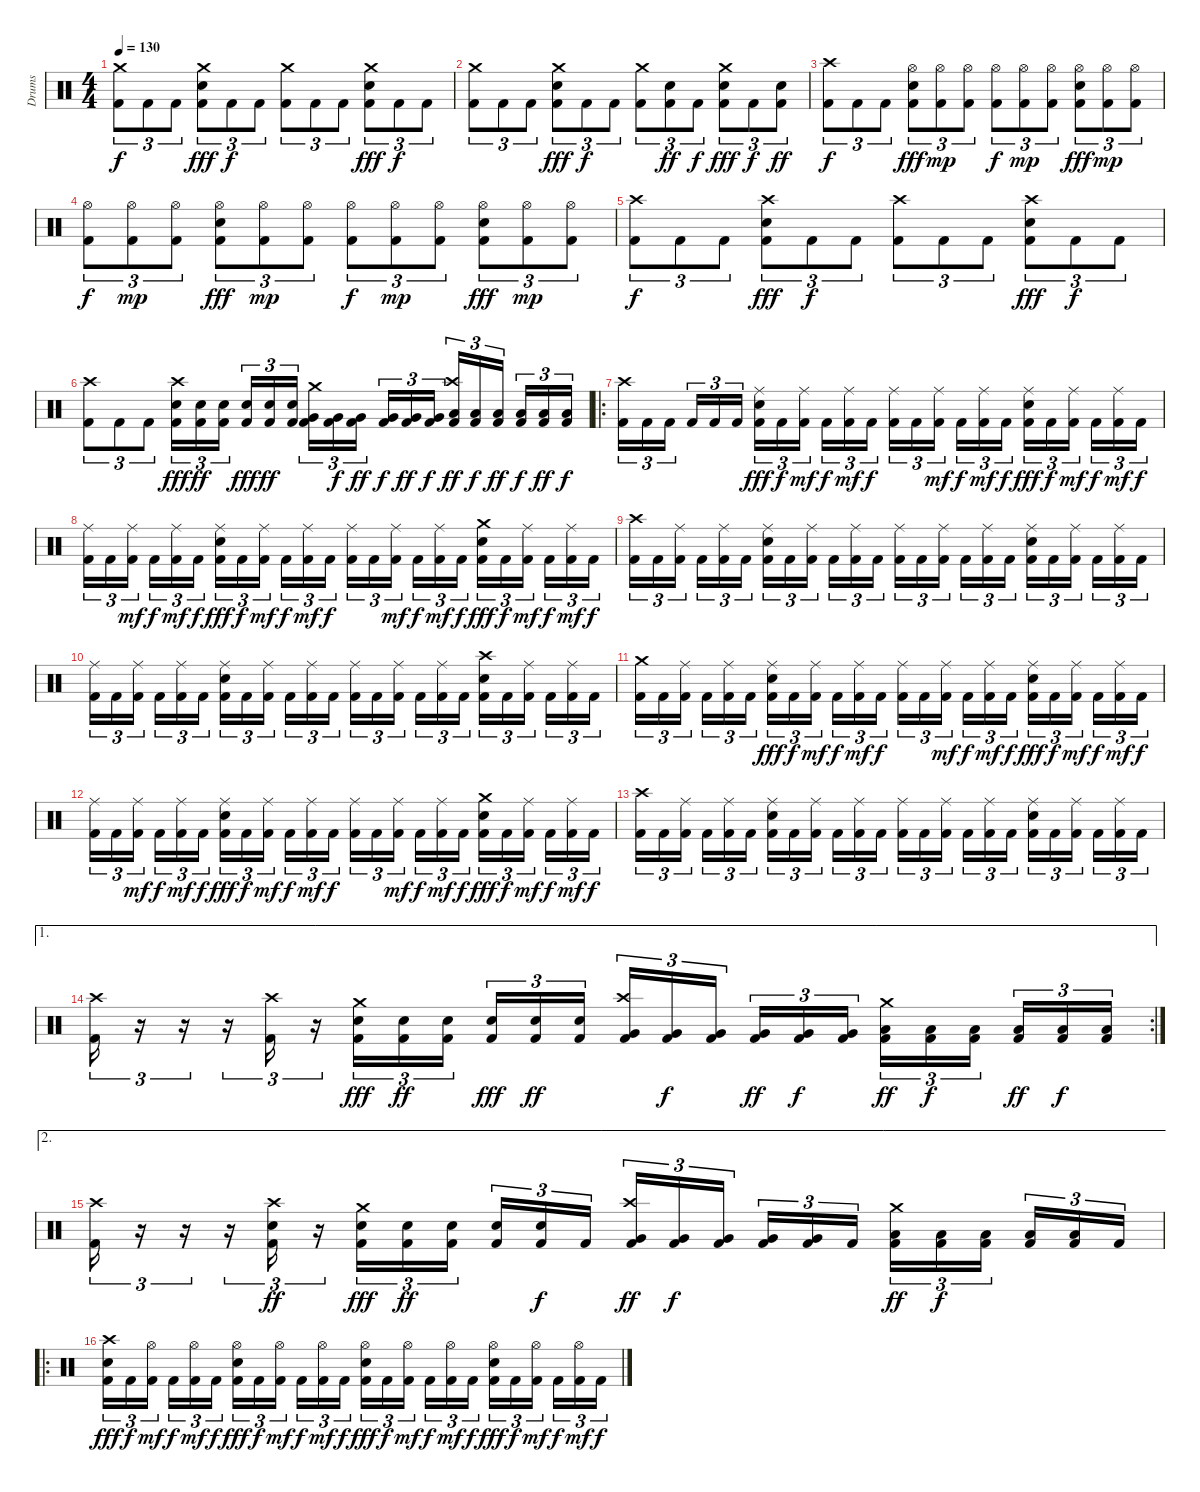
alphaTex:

\track ("Drums" "Drums") {instrument percussion}
\staff {score}
\articulation defaults
\ts (4 4)
\tempo 130
\clef neutral
\ks c
("Crash medium (hit)" "Kick (hit) 2").8{tu (3 2) dy f} "Kick (hit) 2".8{tu (3 2)} "Kick (hit) 2".8{tu (3 2)} ("Crash medium (hit)" "Snare (hit) 2" "Kick (hit) 2").8{tu (3 2) dy fff} "Kick (hit) 2".8{tu (3 2) dy f} "Kick (hit) 2".8{tu (3 2)} ("Crash medium (hit)" "Kick (hit) 2").8{tu (3 2)} "Kick (hit) 2".8{tu (3 2)} "Kick (hit) 2".8{tu (3 2)} ("Crash medium (hit)" "Snare (hit) 2" "Kick (hit) 2").8{tu (3 2) dy fff} "Kick (hit) 2".8{tu (3 2) dy f} "Kick (hit) 2".8{tu (3 2)} |
("Crash medium (hit)" "Kick (hit) 2").8{tu (3 2)} "Kick (hit) 2".8{tu (3 2)} "Kick (hit) 2".8{tu (3 2)} ("Crash medium (hit)" "Snare (hit) 2" "Kick (hit) 2").8{tu (3 2) dy fff} "Kick (hit) 2".8{tu (3 2) dy f} "Kick (hit) 2".8{tu (3 2)} ("Crash medium (hit)" "Kick (hit) 2").8{tu (3 2)} ("Snare (hit) 2" "Kick (hit) 2").8{tu (3 2) dy ff} "Kick (hit) 2".8{tu (3 2) dy f} ("Crash medium (hit)" "Snare (hit) 2" "Kick (hit) 2").8{tu (3 2) dy fff} "Kick (hit) 2".8{tu (3 2) dy f} ("Snare (hit) 2" "Kick (hit) 2").8{tu (3 2) dy ff} |
("Crash high (hit)" "Kick (hit) 2").8{tu (3 2) dy f} "Kick (hit) 2".8{tu (3 2)} "Kick (hit) 2".8{tu (3 2)} ("Hi-Hat (open)" "Snare (hit) 2" "Kick (hit) 2").8{tu (3 2) dy fff} ("Hi-Hat (open)" "Kick (hit) 2").8{tu (3 2) dy mp} ("Hi-Hat (open)" "Kick (hit) 2").8{tu (3 2)} ("Hi-Hat (open)" "Kick (hit) 2").8{tu (3 2) dy f} ("Hi-Hat (open)" "Kick (hit) 2").8{tu (3 2) dy mp} ("Hi-Hat (open)" "Kick (hit) 2").8{tu (3 2)} ("Hi-Hat (open)" "Snare (hit) 2" "Kick (hit) 2").8{tu (3 2) dy fff} ("Hi-Hat (open)" "Kick (hit) 2").8{tu (3 2) dy mp} ("Hi-Hat (open)" "Kick (hit) 2").8{tu (3 2)} |
("Hi-Hat (open)" "Kick (hit) 2").8{tu (3 2) dy f} ("Hi-Hat (open)" "Kick (hit) 2").8{tu (3 2) dy mp} ("Hi-Hat (open)" "Kick (hit) 2").8{tu (3 2)} ("Hi-Hat (open)" "Snare (hit) 2" "Kick (hit) 2").8{tu (3 2) dy fff} ("Hi-Hat (open)" "Kick (hit) 2").8{tu (3 2) dy mp} ("Hi-Hat (open)" "Kick (hit) 2").8{tu (3 2)} ("Hi-Hat (open)" "Kick (hit) 2").8{tu (3 2) dy f} ("Hi-Hat (open)" "Kick (hit) 2").8{tu (3 2) dy mp} ("Hi-Hat (open)" "Kick (hit) 2").8{tu (3 2)} ("Hi-Hat (open)" "Snare (hit) 2" "Kick (hit) 2").8{tu (3 2) dy fff} ("Hi-Hat (open)" "Kick (hit) 2").8{tu (3 2) dy mp} ("Hi-Hat (open)" "Kick (hit) 2").8{tu (3 2)} |
("Crash high (hit)" "Kick (hit) 2").8{tu (3 2) dy f} "Kick (hit) 2".8{tu (3 2)} "Kick (hit) 2".8{tu (3 2)} ("Crash high (hit)" "Snare (hit) 2" "Kick (hit) 2").8{tu (3 2) dy fff} "Kick (hit) 2".8{tu (3 2) dy f} "Kick (hit) 2".8{tu (3 2)} ("Crash high (hit)" "Kick (hit) 2").8{tu (3 2)} "Kick (hit) 2".8{tu (3 2)} "Kick (hit) 2".8{tu (3 2)} ("Crash high (hit)" "Snare (hit) 2" "Kick (hit) 2").8{tu (3 2) dy fff} "Kick (hit) 2".8{tu (3 2) dy f} "Kick (hit) 2".8{tu (3 2)} |
("Crash high (hit)" "Kick (hit) 2").8{tu (3 2)} "Kick (hit) 2".8{tu (3 2)} "Kick (hit) 2".8{tu (3 2)} ("Crash high (hit)" "Snare (hit) 2" "Kick (hit) 2").16{tu (3 2) dy fff} ("Snare (hit) 2" "Kick (hit) 2").16{tu (3 2) dy ff} ("Snare (hit) 2" "Kick (hit) 2").16{tu (3 2)} ("Snare (hit) 2" "Kick (hit) 2").16{tu (3 2) dy fff} ("Snare (hit) 2" "Kick (hit) 2").16{tu (3 2) dy ff} ("Snare (hit) 2" "Kick (hit) 2").16{tu (3 2)} ("Crash medium (hit)" "Very Low Tom (hit)" "Kick (hit) 2").16{tu (3 2)} ("Very Low Tom (hit)" "Kick (hit) 2").16{tu (3 2) dy f} ("Very Low Tom (hit)" "Kick (hit) 2").16{tu (3 2) dy ff} ("Very Low Tom (hit)" "Kick (hit) 2").16{tu (3 2) dy f} ("Very Low Tom (hit)" "Kick (hit) 2").16{tu (3 2) dy ff} ("Very Low Tom (hit)" "Kick (hit) 2").16{tu (3 2) dy f} ("Crash high (hit)" "Low Floor Tom (hit)" "Kick (hit) 2").16{tu (3 2) dy ff} ("Low Floor Tom (hit)" "Kick (hit) 2").16{tu (3 2) dy f} ("Low Floor Tom (hit)" "Kick (hit) 2").16{tu (3 2) dy ff} ("Low Floor Tom (hit)" "Kick (hit) 2").16{tu (3 2) dy f} ("Low Floor Tom (hit)" "Kick (hit) 2").16{tu (3 2) dy ff} ("Low Floor Tom (hit)" "Kick (hit) 2").16{tu (3 2) dy f} |
\ro
("Crash high (hit)" "Kick (hit) 2").16{tu (3 2)} "Kick (hit) 2".16{tu (3 2)} "Kick (hit) 2".16{tu (3 2)} "Kick (hit) 2".16{tu (3 2)} "Kick (hit) 2".16{tu (3 2)} "Kick (hit) 2".16{tu (3 2)} ("Ride (middle)" "Snare (hit) 2" "Kick (hit) 2").16{tu (3 2) dy fff} "Kick (hit) 2".16{tu (3 2) dy f} ("Ride (middle)" "Kick (hit) 2").16{tu (3 2) dy mf} "Kick (hit) 2".16{tu (3 2) dy f} ("Ride (middle)" "Kick (hit) 2").16{tu (3 2) dy mf} "Kick (hit) 2".16{tu (3 2) dy f} ("Ride (middle)" "Kick (hit) 2").16{tu (3 2)} "Kick (hit) 2".16{tu (3 2)} ("Ride (middle)" "Kick (hit) 2").16{tu (3 2) dy mf} "Kick (hit) 2".16{tu (3 2) dy f} ("Ride (middle)" "Kick (hit) 2").16{tu (3 2) dy mf} "Kick (hit) 2".16{tu (3 2) dy f} ("Ride (middle)" "Snare (hit) 2" "Kick (hit) 2").16{tu (3 2) dy fff} "Kick (hit) 2".16{tu (3 2) dy f} ("Ride (middle)" "Kick (hit) 2").16{tu (3 2) dy mf} "Kick (hit) 2".16{tu (3 2) dy f} ("Ride (middle)" "Kick (hit) 2").16{tu (3 2) dy mf} "Kick (hit) 2".16{tu (3 2) dy f} |
("Ride (middle)" "Kick (hit) 2").16{tu (3 2)} "Kick (hit) 2".16{tu (3 2)} ("Ride (middle)" "Kick (hit) 2").16{tu (3 2) dy mf} "Kick (hit) 2".16{tu (3 2) dy f} ("Ride (middle)" "Kick (hit) 2").16{tu (3 2) dy mf} "Kick (hit) 2".16{tu (3 2) dy f} ("Ride (middle)" "Snare (hit) 2" "Kick (hit) 2").16{tu (3 2) dy fff} "Kick (hit) 2".16{tu (3 2) dy f} ("Ride (middle)" "Kick (hit) 2").16{tu (3 2) dy mf} "Kick (hit) 2".16{tu (3 2) dy f} ("Ride (middle)" "Kick (hit) 2").16{tu (3 2) dy mf} "Kick (hit) 2".16{tu (3 2) dy f} ("Ride (middle)" "Kick (hit) 2").16{tu (3 2)} "Kick (hit) 2".16{tu (3 2)} ("Ride (middle)" "Kick (hit) 2").16{tu (3 2) dy mf} "Kick (hit) 2".16{tu (3 2) dy f} ("Ride (middle)" "Kick (hit) 2").16{tu (3 2) dy mf} "Kick (hit) 2".16{tu (3 2) dy f} ("Crash medium (hit)" "Snare (hit) 2" "Kick (hit) 2").16{tu (3 2) dy fff} "Kick (hit) 2".16{tu (3 2) dy f} ("Ride (middle)" "Kick (hit) 2").16{tu (3 2) dy mf} "Kick (hit) 2".16{tu (3 2) dy f} ("Ride (middle)" "Kick (hit) 2").16{tu (3 2) dy mf} "Kick (hit) 2".16{tu (3 2) dy f} |
("Crash high (hit)" "Kick (hit) 2").16{tu (3 2)} "Kick (hit) 2".16{tu (3 2)} ("Ride (middle)" "Kick (hit) 2").16{tu (3 2)} "Kick (hit) 2".16{tu (3 2)} ("Ride (middle)" "Kick (hit) 2").16{tu (3 2)} "Kick (hit) 2".16{tu (3 2)} ("Ride (middle)" "Snare (hit) 2" "Kick (hit) 2").16{tu (3 2)} "Kick (hit) 2".16{tu (3 2)} ("Ride (middle)" "Kick (hit) 2").16{tu (3 2)} "Kick (hit) 2".16{tu (3 2)} ("Ride (middle)" "Kick (hit) 2").16{tu (3 2)} "Kick (hit) 2".16{tu (3 2)} ("Ride (middle)" "Kick (hit) 2").16{tu (3 2)} "Kick (hit) 2".16{tu (3 2)} ("Ride (middle)" "Kick (hit) 2").16{tu (3 2)} "Kick (hit) 2".16{tu (3 2)} ("Ride (middle)" "Kick (hit) 2").16{tu (3 2)} "Kick (hit) 2".16{tu (3 2)} ("Ride (middle)" "Snare (hit) 2" "Kick (hit) 2").16{tu (3 2)} "Kick (hit) 2".16{tu (3 2)} ("Ride (middle)" "Kick (hit) 2").16{tu (3 2)} "Kick (hit) 2".16{tu (3 2)} ("Ride (middle)" "Kick (hit) 2").16{tu (3 2)} "Kick (hit) 2".16{tu (3 2)} |
("Ride (middle)" "Kick (hit) 2").16{tu (3 2)} "Kick (hit) 2".16{tu (3 2)} ("Ride (middle)" "Kick (hit) 2").16{tu (3 2)} "Kick (hit) 2".16{tu (3 2)} ("Ride (middle)" "Kick (hit) 2").16{tu (3 2)} "Kick (hit) 2".16{tu (3 2)} ("Ride (middle)" "Snare (hit) 2" "Kick (hit) 2").16{tu (3 2)} "Kick (hit) 2".16{tu (3 2)} ("Ride (middle)" "Kick (hit) 2").16{tu (3 2)} "Kick (hit) 2".16{tu (3 2)} ("Ride (middle)" "Kick (hit) 2").16{tu (3 2)} "Kick (hit) 2".16{tu (3 2)} ("Ride (middle)" "Kick (hit) 2").16{tu (3 2)} "Kick (hit) 2".16{tu (3 2)} ("Ride (middle)" "Kick (hit) 2").16{tu (3 2)} "Kick (hit) 2".16{tu (3 2)} ("Ride (middle)" "Kick (hit) 2").16{tu (3 2)} "Kick (hit) 2".16{tu (3 2)} ("Crash high (hit)" "Snare (hit) 2" "Kick (hit) 2").16{tu (3 2)} "Kick (hit) 2".16{tu (3 2)} ("Ride (middle)" "Kick (hit) 2").16{tu (3 2)} "Kick (hit) 2".16{tu (3 2)} ("Ride (middle)" "Kick (hit) 2").16{tu (3 2)} "Kick (hit) 2".16{tu (3 2)} |
("Crash medium (hit)" "Kick (hit) 2").16{tu (3 2)} "Kick (hit) 2".16{tu (3 2)} ("Ride (middle)" "Kick (hit) 2").16{tu (3 2)} "Kick (hit) 2".16{tu (3 2)} ("Ride (middle)" "Kick (hit) 2").16{tu (3 2)} "Kick (hit) 2".16{tu (3 2)} ("Ride (middle)" "Snare (hit) 2" "Kick (hit) 2").16{tu (3 2) dy fff} "Kick (hit) 2".16{tu (3 2) dy f} ("Ride (middle)" "Kick (hit) 2").16{tu (3 2) dy mf} "Kick (hit) 2".16{tu (3 2) dy f} ("Ride (middle)" "Kick (hit) 2").16{tu (3 2) dy mf} "Kick (hit) 2".16{tu (3 2) dy f} ("Ride (middle)" "Kick (hit) 2").16{tu (3 2)} "Kick (hit) 2".16{tu (3 2)} ("Ride (middle)" "Kick (hit) 2").16{tu (3 2) dy mf} "Kick (hit) 2".16{tu (3 2) dy f} ("Ride (middle)" "Kick (hit) 2").16{tu (3 2) dy mf} "Kick (hit) 2".16{tu (3 2) dy f} ("Ride (middle)" "Snare (hit) 2" "Kick (hit) 2").16{tu (3 2) dy fff} "Kick (hit) 2".16{tu (3 2) dy f} ("Ride (middle)" "Kick (hit) 2").16{tu (3 2) dy mf} "Kick (hit) 2".16{tu (3 2) dy f} ("Ride (middle)" "Kick (hit) 2").16{tu (3 2) dy mf} "Kick (hit) 2".16{tu (3 2) dy f} |
("Ride (middle)" "Kick (hit) 2").16{tu (3 2)} "Kick (hit) 2".16{tu (3 2)} ("Ride (middle)" "Kick (hit) 2").16{tu (3 2) dy mf} "Kick (hit) 2".16{tu (3 2) dy f} ("Ride (middle)" "Kick (hit) 2").16{tu (3 2) dy mf} "Kick (hit) 2".16{tu (3 2) dy f} ("Ride (middle)" "Snare (hit) 2" "Kick (hit) 2").16{tu (3 2) dy fff} "Kick (hit) 2".16{tu (3 2) dy f} ("Ride (middle)" "Kick (hit) 2").16{tu (3 2) dy mf} "Kick (hit) 2".16{tu (3 2) dy f} ("Ride (middle)" "Kick (hit) 2").16{tu (3 2) dy mf} "Kick (hit) 2".16{tu (3 2) dy f} ("Ride (middle)" "Kick (hit) 2").16{tu (3 2)} "Kick (hit) 2".16{tu (3 2)} ("Ride (middle)" "Kick (hit) 2").16{tu (3 2) dy mf} "Kick (hit) 2".16{tu (3 2) dy f} ("Ride (middle)" "Kick (hit) 2").16{tu (3 2) dy mf} "Kick (hit) 2".16{tu (3 2) dy f} ("Crash medium (hit)" "Snare (hit) 2" "Kick (hit) 2").16{tu (3 2) dy fff} "Kick (hit) 2".16{tu (3 2) dy f} ("Ride (middle)" "Kick (hit) 2").16{tu (3 2) dy mf} "Kick (hit) 2".16{tu (3 2) dy f} ("Ride (middle)" "Kick (hit) 2").16{tu (3 2) dy mf} "Kick (hit) 2".16{tu (3 2) dy f} |
("Crash high (hit)" "Kick (hit) 2").16{tu (3 2)} "Kick (hit) 2".16{tu (3 2)} ("Ride (middle)" "Kick (hit) 2").16{tu (3 2)} "Kick (hit) 2".16{tu (3 2)} ("Ride (middle)" "Kick (hit) 2").16{tu (3 2)} "Kick (hit) 2".16{tu (3 2)} ("Ride (middle)" "Snare (hit) 2" "Kick (hit) 2").16{tu (3 2)} "Kick (hit) 2".16{tu (3 2)} ("Ride (middle)" "Kick (hit) 2").16{tu (3 2)} "Kick (hit) 2".16{tu (3 2)} ("Ride (middle)" "Kick (hit) 2").16{tu (3 2)} "Kick (hit) 2".16{tu (3 2)} ("Ride (middle)" "Kick (hit) 2").16{tu (3 2)} "Kick (hit) 2".16{tu (3 2)} ("Ride (middle)" "Kick (hit) 2").16{tu (3 2)} "Kick (hit) 2".16{tu (3 2)} ("Ride (middle)" "Kick (hit) 2").16{tu (3 2)} "Kick (hit) 2".16{tu (3 2)} ("Ride (middle)" "Snare (hit) 2" "Kick (hit) 2").16{tu (3 2)} "Kick (hit) 2".16{tu (3 2)} ("Ride (middle)" "Kick (hit) 2").16{tu (3 2)} "Kick (hit) 2".16{tu (3 2)} ("Ride (middle)" "Kick (hit) 2").16{tu (3 2)} "Kick (hit) 2".16{tu (3 2)} |
\ae 1
\rc 2
("Crash high (hit)" "Kick (hit) 2").16{tu (3 2)} r.16{tu (3 2)} r.16{tu (3 2)} r.16{tu (3 2)} ("Crash high (hit)" "Kick (hit) 2").16{tu (3 2)} r.16{tu (3 2)} ("Crash medium (hit)" "Snare (hit) 2" "Kick (hit) 2").16{tu (3 2) dy fff} ("Snare (hit) 2" "Kick (hit) 2").16{tu (3 2) dy ff} ("Snare (hit) 2" "Kick (hit) 2").16{tu (3 2)} ("Snare (hit) 2" "Kick (hit) 2").16{tu (3 2) dy fff} ("Snare (hit) 2" "Kick (hit) 2").16{tu (3 2) dy ff} ("Snare (hit) 2" "Kick (hit) 2").16{tu (3 2)} ("Crash high (hit)" "Very Low Tom (hit)" "Kick (hit) 2").16{tu (3 2)} ("Very Low Tom (hit)" "Kick (hit) 2").16{tu (3 2) dy f} ("Very Low Tom (hit)" "Kick (hit) 2").16{tu (3 2)} ("Very Low Tom (hit)" "Kick (hit) 2").16{tu (3 2) dy ff} ("Very Low Tom (hit)" "Kick (hit) 2").16{tu (3 2) dy f} ("Very Low Tom (hit)" "Kick (hit) 2").16{tu (3 2)} ("Crash medium (hit)" "Low Floor Tom (hit)" "Kick (hit) 2").16{tu (3 2) dy ff} ("Low Floor Tom (hit)" "Kick (hit) 2").16{tu (3 2) dy f} ("Low Floor Tom (hit)" "Kick (hit) 2").16{tu (3 2)} ("Low Floor Tom (hit)" "Kick (hit) 2").16{tu (3 2) dy ff} ("Low Floor Tom (hit)" "Kick (hit) 2").16{tu (3 2) dy f} ("Low Floor Tom (hit)" "Kick (hit) 2").16{tu (3 2)} |
\ae 2
("Crash high (hit)" "Kick (hit) 2").16{tu (3 2)} r.16{tu (3 2)} r.16{tu (3 2)} r.16{tu (3 2)} ("Crash high (hit)" "Snare (hit) 2" "Kick (hit) 2").16{tu (3 2) dy ff} r.16{tu (3 2)} ("Crash medium (hit)" "Snare (hit) 2" "Kick (hit) 2").16{tu (3 2) dy fff} ("Snare (hit) 2" "Kick (hit) 2").16{tu (3 2) dy ff} ("Snare (hit) 2" "Kick (hit) 2").16{tu (3 2)} ("Snare (hit) 2" "Kick (hit) 2").16{tu (3 2)} ("Snare (hit) 2" "Kick (hit) 2").16{tu (3 2) dy f} "Kick (hit) 2".16{tu (3 2)} ("Crash high (hit)" "Very Low Tom (hit)" "Kick (hit) 2").16{tu (3 2) dy ff} ("Very Low Tom (hit)" "Kick (hit) 2").16{tu (3 2) dy f} ("Very Low Tom (hit)" "Kick (hit) 2").16{tu (3 2)} ("Very Low Tom (hit)" "Kick (hit) 2").16{tu (3 2)} ("Very Low Tom (hit)" "Kick (hit) 2").16{tu (3 2)} "Kick (hit) 2".16{tu (3 2)} ("Crash medium (hit)" "Low Floor Tom (hit)" "Kick (hit) 2").16{tu (3 2) dy ff} ("Low Floor Tom (hit)" "Kick (hit) 2").16{tu (3 2) dy f} ("Low Floor Tom (hit)" "Kick (hit) 2").16{tu (3 2)} ("Low Floor Tom (hit)" "Kick (hit) 2").16{tu (3 2)} ("Low Floor Tom (hit)" "Kick (hit) 2").16{tu (3 2)} "Kick (hit) 2".16{tu (3 2)} |
\ro
("Crash high (hit)" "Snare (hit) 2" "Kick (hit) 2").16{tu (3 2) dy fff} "Kick (hit) 2".16{tu (3 2) dy f} ("Hi-Hat (open)" "Kick (hit) 2").16{tu (3 2) dy mf} "Kick (hit) 2".16{tu (3 2) dy f} ("Hi-Hat (open)" "Kick (hit) 2").16{tu (3 2) dy mf} "Kick (hit) 2".16{tu (3 2) dy f} ("Hi-Hat (open)" "Snare (hit) 2" "Kick (hit) 2").16{tu (3 2) dy fff} "Kick (hit) 2".16{tu (3 2) dy f} ("Hi-Hat (open)" "Kick (hit) 2").16{tu (3 2) dy mf} "Kick (hit) 2".16{tu (3 2) dy f} ("Hi-Hat (open)" "Kick (hit) 2").16{tu (3 2) dy mf} "Kick (hit) 2".16{tu (3 2) dy f} ("Hi-Hat (open)" "Snare (hit) 2" "Kick (hit) 2").16{tu (3 2) dy fff} "Kick (hit) 2".16{tu (3 2) dy f} ("Hi-Hat (open)" "Kick (hit) 2").16{tu (3 2) dy mf} "Kick (hit) 2".16{tu (3 2) dy f} ("Hi-Hat (open)" "Kick (hit) 2").16{tu (3 2) dy mf} "Kick (hit) 2".16{tu (3 2) dy f} ("Hi-Hat (open)" "Snare (hit) 2" "Kick (hit) 2").16{tu (3 2) dy fff} "Kick (hit) 2".16{tu (3 2) dy f} ("Hi-Hat (open)" "Kick (hit) 2").16{tu (3 2) dy mf} "Kick (hit) 2".16{tu (3 2) dy f} ("Hi-Hat (open)" "Kick (hit) 2").16{tu (3 2) dy mf} "Kick (hit) 2".16{tu (3 2) dy f}
